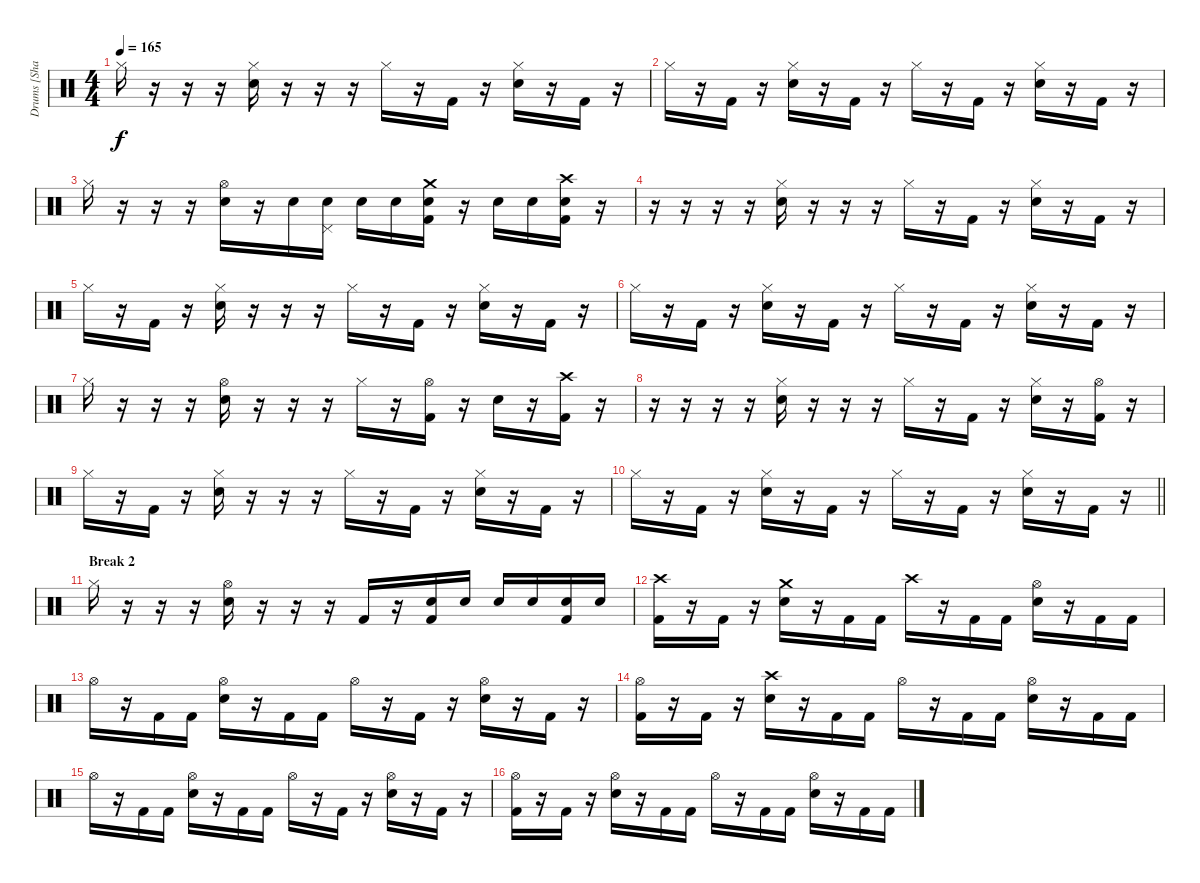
\track ("Drums [Shawn Drover]" "Drums [Sha") {instrument percussion}
\staff {score}
\articulation defaults
\ts (4 4)
\tempo 165
\clef neutral
\ks c "Hi-Hat (closed)".16{dy f}
r.16 r.16 r.16 ("Hi-Hat (closed)" "Electric Snare (hit)").16 r.16 r.16 r.16 "Hi-Hat (closed)".16 r.16 "Kick (hit) 2".16 r.16 ("Hi-Hat (closed)" "Electric Snare (hit)").16 r.16 "Kick (hit) 2".16 r.16 |
"Hi-Hat (closed)".16 r.16 "Kick (hit) 2".16 r.16 ("Hi-Hat (closed)" "Electric Snare (hit)").16 r.16 "Kick (hit) 2".16 r.16 "Hi-Hat (closed)".16 r.16 "Kick (hit) 2".16 r.16 ("Hi-Hat (closed)" "Electric Snare (hit)").16 r.16 "Kick (hit) 2".16 r.16 |
"Hi-Hat (closed)".16 r.16 r.16 r.16 ("Hi-Hat (open)" "Electric Snare (hit)").16 r.16 "Electric Snare (hit)".16 ("Pedal Hi-Hat (hit)" "Electric Snare (hit)").16 "Electric Snare (hit)".16 "Electric Snare (hit)".16 ("Crash medium (hit)" "Electric Snare (hit)" "Kick (hit) 2").16 r.16 "Electric Snare (hit)".16 "Electric Snare (hit)".16 ("Crash high (hit)" "Electric Snare (hit)" "Kick (hit) 2").16 r.16 |
r.16 r.16 r.16 r.16 ("Hi-Hat (closed)" "Electric Snare (hit)").16 r.16 r.16 r.16 "Hi-Hat (closed)".16 r.16 "Kick (hit) 2".16 r.16 ("Hi-Hat (closed)" "Electric Snare (hit)").16 r.16 "Kick (hit) 2".16 r.16 |
"Hi-Hat (closed)".16 r.16 "Kick (hit) 2".16 r.16 ("Hi-Hat (closed)" "Electric Snare (hit)").16 r.16 r.16 r.16 "Hi-Hat (closed)".16 r.16 "Kick (hit) 2".16 r.16 ("Hi-Hat (closed)" "Electric Snare (hit)").16 r.16 "Kick (hit) 2".16 r.16 |
"Hi-Hat (closed)".16 r.16 "Kick (hit) 2".16 r.16 ("Hi-Hat (closed)" "Electric Snare (hit)").16 r.16 "Kick (hit) 2".16 r.16 "Hi-Hat (closed)".16 r.16 "Kick (hit) 2".16 r.16 ("Hi-Hat (closed)" "Electric Snare (hit)").16 r.16 "Kick (hit) 2".16 r.16 |
"Hi-Hat (closed)".16 r.16 r.16 r.16 ("Hi-Hat (open)" "Electric Snare (hit)").16 r.16 r.16 r.16 "Hi-Hat (closed)".16 r.16 ("Hi-Hat (open)" "Kick (hit) 2").16 r.16 "Electric Snare (hit)".16 r.16 ("Crash high (hit)" "Kick (hit) 2").16 r.16 |
r.16 r.16 r.16 r.16 ("Hi-Hat (closed)" "Electric Snare (hit)").16 r.16 r.16 r.16 "Hi-Hat (closed)".16 r.16 "Kick (hit) 2".16 r.16 ("Hi-Hat (closed)" "Electric Snare (hit)").16 r.16 ("Hi-Hat (open)" "Kick (hit) 2").16 r.16 |
"Hi-Hat (closed)".16 r.16 "Kick (hit) 2".16 r.16 ("Hi-Hat (closed)" "Electric Snare (hit)").16 r.16 r.16 r.16 "Hi-Hat (closed)".16 r.16 "Kick (hit) 2".16 r.16 ("Hi-Hat (closed)" "Electric Snare (hit)").16 r.16 "Kick (hit) 2".16 r.16 |
\barLineRight lightlight "Hi-Hat (closed)".16
r.16 "Kick (hit) 2".16 r.16 ("Hi-Hat (closed)" "Electric Snare (hit)").16 r.16 "Kick (hit) 2".16 r.16 "Hi-Hat (closed)".16 r.16 "Kick (hit) 2".16 r.16 ("Hi-Hat (closed)" "Electric Snare (hit)").16 r.16 "Kick (hit) 2".16 r.16 |
\section ("" "Break 2")
"Hi-Hat (closed)".16 r.16 r.16 r.16 ("Hi-Hat (open)" "Electric Snare (hit)").16 r.16 r.16 r.16 "Kick (hit) 2".16 r.16 ("Electric Snare (hit)" "Kick (hit) 2").16 "Electric Snare (hit)".16 "Electric Snare (hit)".16 "Electric Snare (hit)".16 ("Electric Snare (hit)" "Kick (hit) 2").16 "Electric Snare (hit)".16 |
("Crash high (hit)" "Kick (hit) 2").16 r.16 "Kick (hit) 2".16 r.16 ("Crash medium (hit)" "Electric Snare (hit)").16 r.16 "Kick (hit) 2".16 "Kick (hit) 2".16 "Crash high (hit)".16 r.16 "Kick (hit) 2".16 "Kick (hit) 2".16 ("Hi-Hat (open)" "Electric Snare (hit)").16 r.16 "Kick (hit) 2".16 "Kick (hit) 2".16 |
"Hi-Hat (open)".16 r.16 "Kick (hit) 2".16 "Kick (hit) 2".16 ("Hi-Hat (open)" "Electric Snare (hit)").16 r.16 "Kick (hit) 2".16 "Kick (hit) 2".16 "Hi-Hat (open)".16 r.16 "Kick (hit) 2".16 r.16 ("Hi-Hat (open)" "Electric Snare (hit)").16 r.16 "Kick (hit) 2".16 r.16 |
("Hi-Hat (open)" "Kick (hit) 2").16 r.16 "Kick (hit) 2".16 r.16 ("Crash high (hit)" "Electric Snare (hit)").16 r.16 "Kick (hit) 2".16 "Kick (hit) 2".16 "Hi-Hat (open)".16 r.16 "Kick (hit) 2".16 "Kick (hit) 2".16 ("Hi-Hat (open)" "Electric Snare (hit)").16 r.16 "Kick (hit) 2".16 "Kick (hit) 2".16 |
"Hi-Hat (open)".16 r.16 "Kick (hit) 2".16 "Kick (hit) 2".16 ("Hi-Hat (open)" "Electric Snare (hit)").16 r.16 "Kick (hit) 2".16 "Kick (hit) 2".16 "Hi-Hat (open)".16 r.16 "Kick (hit) 2".16 r.16 ("Hi-Hat (open)" "Electric Snare (hit)").16 r.16 "Kick (hit) 2".16 r.16 |
("Hi-Hat (open)" "Kick (hit) 2").16 r.16 "Kick (hit) 2".16 r.16 ("Hi-Hat (open)" "Electric Snare (hit)").16 r.16 "Kick (hit) 2".16 "Kick (hit) 2".16 "Hi-Hat (open)".16 r.16 "Kick (hit) 2".16 "Kick (hit) 2".16 ("Hi-Hat (open)" "Electric Snare (hit)").16 r.16 "Kick (hit) 2".16 "Kick (hit) 2".16
